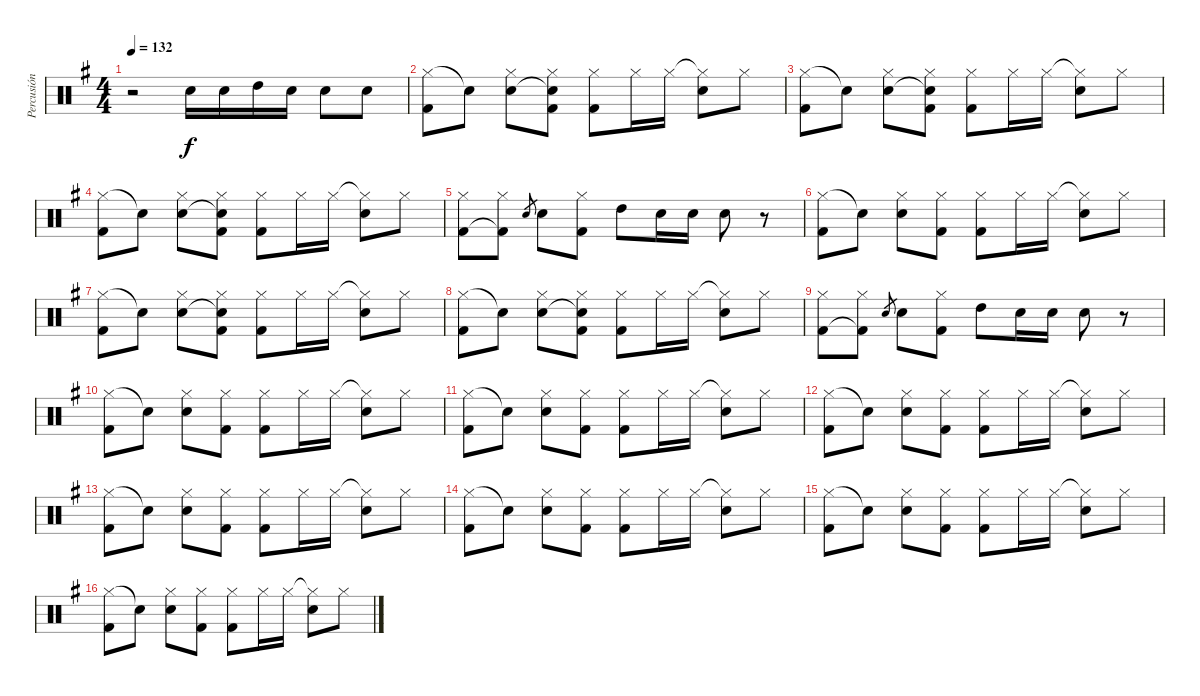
\track ("Percusión" "Percusión") {instrument percussion}
\staff {score}
\articulation defaults
\ts (4 4)
\tempo 132
\clef neutral
\ks eminor
r.2{dy f} "Electric Snare (hit)".16 "Electric Snare (hit)".16 "High Tom (hit)".16 "Electric Snare (hit)".16 "Electric Snare (hit)".8 "Electric Snare (hit)".8 |
("Hi-Hat (closed)" "Kick (hit) 2").8 "Snare (hit)"{t}.8 ("Hi-Hat (closed)" "Electric Snare (hit)").8 ("Hi-Hat (closed)" "Snare (hit)"{t} "Kick (hit) 2").8 ("Hi-Hat (closed)" "Kick (hit) 2").8 "Hi-Hat (closed)".16 "Hi-Hat (closed)".16 ("Hi-Hat (closed)"{t} "Electric Snare (hit)").8 "Hi-Hat (closed)".8 |
("Hi-Hat (closed)" "Kick (hit) 2").8 "Snare (hit)"{t}.8 ("Hi-Hat (closed)" "Electric Snare (hit)").8 ("Hi-Hat (closed)" "Snare (hit)"{t} "Kick (hit) 2").8 ("Hi-Hat (closed)" "Kick (hit) 2").8 "Hi-Hat (closed)".16 "Hi-Hat (closed)".16 ("Hi-Hat (closed)"{t} "Electric Snare (hit)").8 "Hi-Hat (closed)".8 |
("Hi-Hat (closed)" "Kick (hit) 2").8 "Snare (hit)"{t}.8 ("Hi-Hat (closed)" "Electric Snare (hit)").8 ("Hi-Hat (closed)" "Snare (hit)"{t} "Kick (hit) 2").8 ("Hi-Hat (closed)" "Kick (hit) 2").8 "Hi-Hat (closed)".16 "Hi-Hat (closed)".16 ("Hi-Hat (closed)"{t} "Electric Snare (hit)").8 "Hi-Hat (closed)".8 |
("Hi-Hat (closed)" "Kick (hit) 2").8 ("Hi-Hat (closed)" "Kick (hit) 2"{t}).8 "Electric Snare (hit)".8{gr} "Electric Snare (hit)".8 ("Hi-Hat (closed)" "Kick (hit) 2").8 "High Tom (hit)".8 "Electric Snare (hit)".16 "Electric Snare (hit)".16 "Electric Snare (hit)".8 r.8 |
("Hi-Hat (closed)" "Kick (hit) 2").8 "Snare (hit)"{t}.8 ("Hi-Hat (closed)" "Electric Snare (hit)").8 ("Hi-Hat (closed)" "Kick (hit) 2").8 ("Hi-Hat (closed)" "Kick (hit) 2").8 "Hi-Hat (closed)".16 "Hi-Hat (closed)".16 ("Hi-Hat (closed)"{t} "Electric Snare (hit)").8 "Hi-Hat (closed)".8 |
("Hi-Hat (closed)" "Kick (hit) 2").8 "Snare (hit)"{t}.8 ("Hi-Hat (closed)" "Electric Snare (hit)").8 ("Hi-Hat (closed)" "Snare (hit)"{t} "Kick (hit) 2").8 ("Hi-Hat (closed)" "Kick (hit) 2").8 "Hi-Hat (closed)".16 "Hi-Hat (closed)".16 ("Hi-Hat (closed)"{t} "Electric Snare (hit)").8 "Hi-Hat (closed)".8 |
("Hi-Hat (closed)" "Kick (hit) 2").8 "Snare (hit)"{t}.8 ("Hi-Hat (closed)" "Electric Snare (hit)").8 ("Hi-Hat (closed)" "Snare (hit)"{t} "Kick (hit) 2").8 ("Hi-Hat (closed)" "Kick (hit) 2").8 "Hi-Hat (closed)".16 "Hi-Hat (closed)".16 ("Hi-Hat (closed)"{t} "Electric Snare (hit)").8 "Hi-Hat (closed)".8 |
("Hi-Hat (closed)" "Kick (hit) 2").8 ("Hi-Hat (closed)" "Kick (hit) 2"{t}).8 "Electric Snare (hit)".8{gr} "Electric Snare (hit)".8 ("Hi-Hat (closed)" "Kick (hit) 2").8 "High Tom (hit)".8 "Electric Snare (hit)".16 "Electric Snare (hit)".16 "Electric Snare (hit)".8 r.8 |
("Hi-Hat (closed)" "Kick (hit) 2").8 "Snare (hit)"{t}.8 ("Hi-Hat (closed)" "Electric Snare (hit)").8 ("Hi-Hat (closed)" "Kick (hit) 2").8 ("Hi-Hat (closed)" "Kick (hit) 2").8 "Hi-Hat (closed)".16 "Hi-Hat (closed)".16 ("Hi-Hat (closed)"{t} "Electric Snare (hit)").8 "Hi-Hat (closed)".8 |
("Hi-Hat (closed)" "Kick (hit) 2").8 "Snare (hit)"{t}.8 ("Hi-Hat (closed)" "Electric Snare (hit)").8 ("Hi-Hat (closed)" "Kick (hit) 2").8 ("Hi-Hat (closed)" "Kick (hit) 2").8 "Hi-Hat (closed)".16 "Hi-Hat (closed)".16 ("Hi-Hat (closed)"{t} "Electric Snare (hit)").8 "Hi-Hat (closed)".8 |
("Hi-Hat (closed)" "Kick (hit) 2").8 "Snare (hit)"{t}.8 ("Hi-Hat (closed)" "Electric Snare (hit)").8 ("Hi-Hat (closed)" "Kick (hit) 2").8 ("Hi-Hat (closed)" "Kick (hit) 2").8 "Hi-Hat (closed)".16 "Hi-Hat (closed)".16 ("Hi-Hat (closed)"{t} "Electric Snare (hit)").8 "Hi-Hat (closed)".8 |
("Hi-Hat (closed)" "Kick (hit) 2").8 "Snare (hit)"{t}.8 ("Hi-Hat (closed)" "Electric Snare (hit)").8 ("Hi-Hat (closed)" "Kick (hit) 2").8 ("Hi-Hat (closed)" "Kick (hit) 2").8 "Hi-Hat (closed)".16 "Hi-Hat (closed)".16 ("Hi-Hat (closed)"{t} "Electric Snare (hit)").8 "Hi-Hat (closed)".8 |
("Hi-Hat (closed)" "Kick (hit) 2").8 "Snare (hit)"{t}.8 ("Hi-Hat (closed)" "Electric Snare (hit)").8 ("Hi-Hat (closed)" "Kick (hit) 2").8 ("Hi-Hat (closed)" "Kick (hit) 2").8 "Hi-Hat (closed)".16 "Hi-Hat (closed)".16 ("Hi-Hat (closed)"{t} "Electric Snare (hit)").8 "Hi-Hat (closed)".8 |
("Hi-Hat (closed)" "Kick (hit) 2").8 "Snare (hit)"{t}.8 ("Hi-Hat (closed)" "Electric Snare (hit)").8 ("Hi-Hat (closed)" "Kick (hit) 2").8 ("Hi-Hat (closed)" "Kick (hit) 2").8 "Hi-Hat (closed)".16 "Hi-Hat (closed)".16 ("Hi-Hat (closed)"{t} "Electric Snare (hit)").8 "Hi-Hat (closed)".8 |
("Hi-Hat (closed)" "Kick (hit) 2").8 "Snare (hit)"{t}.8 ("Hi-Hat (closed)" "Electric Snare (hit)").8 ("Hi-Hat (closed)" "Kick (hit) 2").8 ("Hi-Hat (closed)" "Kick (hit) 2").8 "Hi-Hat (closed)".16 "Hi-Hat (closed)".16 ("Hi-Hat (closed)"{t} "Electric Snare (hit)").8 "Hi-Hat (closed)".8
